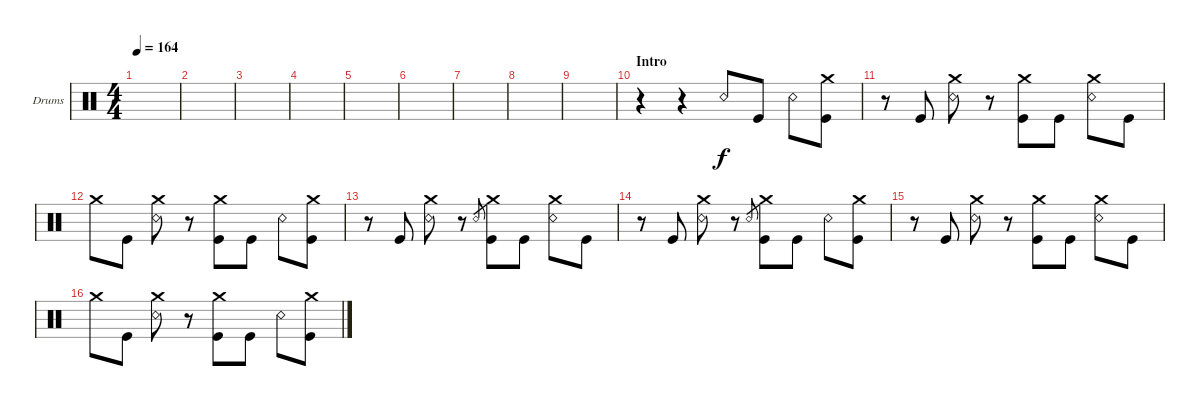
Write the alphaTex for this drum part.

\defaultSystemsLayout 4
\bracketExtendMode groupsimilarinstruments
\firstSystemTrackNameOrientation horizontal
\otherSystemsTrackNameOrientation horizontal
\track ("Drums" "Drums") {instrument percussion}
\staff {score}
\articulation defaults
\ts (4 4)
\tempo 164
\clef neutral
\scale
0.474178
\ks c
|
\scale
0.262911 |
\scale
0.262911 |
\scale
0.333333 |
\scale
0.333333 |
\scale
0.333333 |
\scale
0.333333 |
\scale
0.333333 |
\scale
0.333333 |
\section ("" "Intro")
\scale
0.333333 r.4 r.4 "Snare (rim shot)".8 "Kick (hit)".8 "Snare (rim shot)".8 ("Kick (hit)" "Crash medium (hit)").8 |
\scale
0.333333 r.8 "Kick (hit)".8 ("Snare (rim shot)" "Crash medium (hit)").8 r.8 ("Kick (hit)" "Crash medium (hit)").8 "Kick (hit)".8 ("Snare (rim shot)" "Crash medium (hit)").8 "Kick (hit)".8 |
\scale
0.333333 "Crash medium (hit)".8 "Kick (hit)".8 ("Snare (rim shot)" "Crash medium (hit)").8 r.8 ("Kick (hit)" "Crash medium (hit)").8 "Kick (hit)".8 "Snare (rim shot)".8 ("Crash medium (hit)" "Kick (hit)").8 |
\scale
0.333333 r.8 "Kick (hit)".8 ("Snare (rim shot)" "Crash medium (hit)").8 r.8 "Snare (rim shot)".8{gr} ("Kick (hit)" "Crash medium (hit)").8 "Kick (hit)".8 ("Snare (rim shot)" "Crash medium (hit)").8 "Kick (hit)".8 |
\scale
0.333333 r.8 "Kick (hit)".8 ("Snare (rim shot)" "Crash medium (hit)").8 r.8 "Snare (rim shot)".8{gr} ("Kick (hit)" "Crash medium (hit)").8 "Kick (hit)".8 "Snare (rim shot)".8 ("Kick (hit)" "Crash medium (hit)").8 |
\scale
0.333333 r.8 "Kick (hit)".8 ("Snare (rim shot)" "Crash medium (hit)").8 r.8 ("Kick (hit)" "Crash medium (hit)").8 "Kick (hit)".8 ("Snare (rim shot)" "Crash medium (hit)").8 "Kick (hit)".8 |
\scale
0.333333 "Crash medium (hit)".8 "Kick (hit)".8 ("Snare (rim shot)" "Crash medium (hit)").8 r.8 ("Kick (hit)" "Crash medium (hit)").8 "Kick (hit)".8 "Snare (rim shot)".8 ("Crash medium (hit)" "Kick (hit)").8
